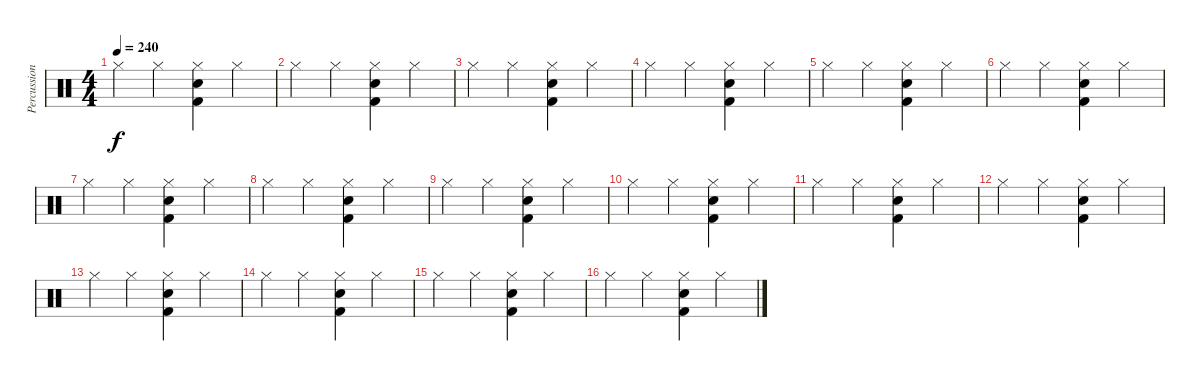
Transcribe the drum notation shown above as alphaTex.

\track ("Percussion" "Percussion") {instrument percussion}
\staff {score}
\articulation defaults
\ts (4 4)
\tempo 240
\clef neutral
\ks c "Hi-Hat (closed)".4{dy f} "Hi-Hat (closed)".4
("Kick (hit) 2" "Snare (hit) 2" "Hi-Hat (closed)").4 "Hi-Hat (closed)".4 |
"Hi-Hat (closed)".4 "Hi-Hat (closed)".4 ("Kick (hit) 2" "Snare (hit) 2" "Hi-Hat (closed)").4 "Hi-Hat (closed)".4 |
"Hi-Hat (closed)".4 "Hi-Hat (closed)".4 ("Kick (hit) 2" "Snare (hit) 2" "Hi-Hat (closed)").4 "Hi-Hat (closed)".4 |
"Hi-Hat (closed)".4 "Hi-Hat (closed)".4 ("Kick (hit) 2" "Snare (hit) 2" "Hi-Hat (closed)").4 "Hi-Hat (closed)".4 |
"Hi-Hat (closed)".4 "Hi-Hat (closed)".4 ("Kick (hit) 2" "Snare (hit) 2" "Hi-Hat (closed)").4 "Hi-Hat (closed)".4 |
"Hi-Hat (closed)".4 "Hi-Hat (closed)".4 ("Kick (hit) 2" "Snare (hit) 2" "Hi-Hat (closed)").4 "Hi-Hat (closed)".4 |
"Hi-Hat (closed)".4 "Hi-Hat (closed)".4 ("Kick (hit) 2" "Snare (hit) 2" "Hi-Hat (closed)").4 "Hi-Hat (closed)".4 |
"Hi-Hat (closed)".4 "Hi-Hat (closed)".4 ("Kick (hit) 2" "Snare (hit) 2" "Hi-Hat (closed)").4 "Hi-Hat (closed)".4 |
"Hi-Hat (closed)".4 "Hi-Hat (closed)".4 ("Kick (hit) 2" "Snare (hit) 2" "Hi-Hat (closed)").4 "Hi-Hat (closed)".4 |
"Hi-Hat (closed)".4 "Hi-Hat (closed)".4 ("Kick (hit) 2" "Snare (hit) 2" "Hi-Hat (closed)").4 "Hi-Hat (closed)".4 |
"Hi-Hat (closed)".4 "Hi-Hat (closed)".4 ("Kick (hit) 2" "Snare (hit) 2" "Hi-Hat (closed)").4 "Hi-Hat (closed)".4 |
"Hi-Hat (closed)".4 "Hi-Hat (closed)".4 ("Kick (hit) 2" "Snare (hit) 2" "Hi-Hat (closed)").4 "Hi-Hat (closed)".4 |
"Hi-Hat (closed)".4 "Hi-Hat (closed)".4 ("Kick (hit) 2" "Snare (hit) 2" "Hi-Hat (closed)").4 "Hi-Hat (closed)".4 |
"Hi-Hat (closed)".4 "Hi-Hat (closed)".4 ("Kick (hit) 2" "Snare (hit) 2" "Hi-Hat (closed)").4 "Hi-Hat (closed)".4 |
"Hi-Hat (closed)".4 "Hi-Hat (closed)".4 ("Kick (hit) 2" "Snare (hit) 2" "Hi-Hat (closed)").4 "Hi-Hat (closed)".4 |
"Hi-Hat (closed)".4 "Hi-Hat (closed)".4 ("Kick (hit) 2" "Snare (hit) 2" "Hi-Hat (closed)").4 "Hi-Hat (closed)".4
